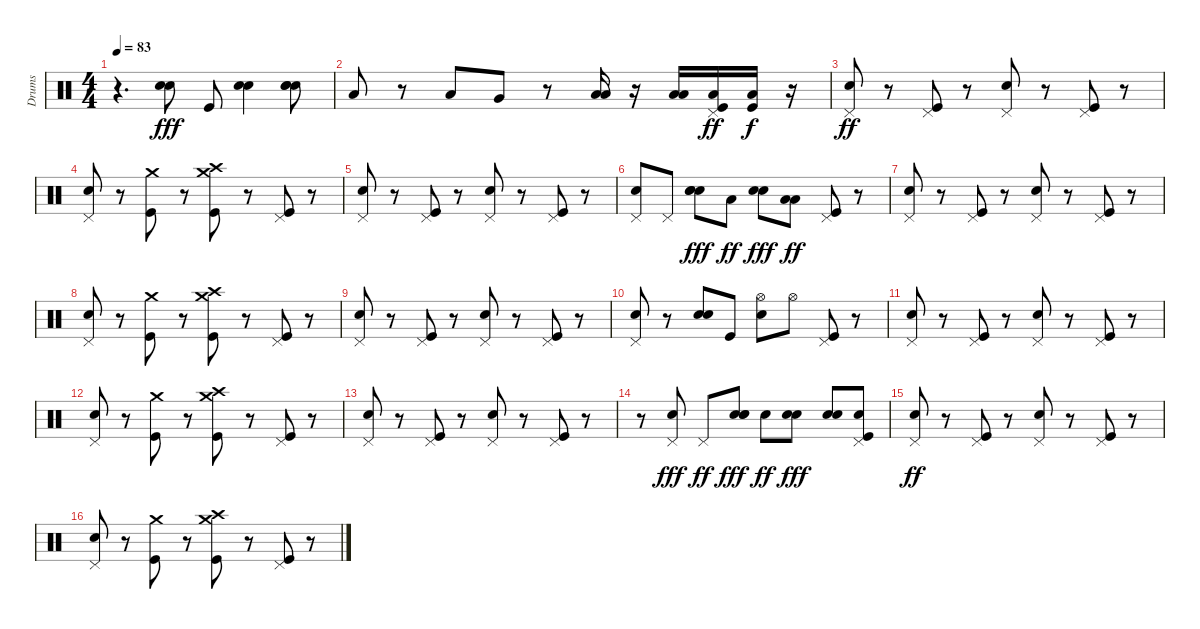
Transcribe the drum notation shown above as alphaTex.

\track ("Drums" "Drums") {instrument percussion}
\staff {score}
\articulation defaults
\ts (4 4)
\tempo 83
\clef neutral
\ks c
r.4{d dy fff} ("Electric Snare (hit)" "Snare (hit) 2").8 "Kick (hit)".8 ("Snare (hit) 2" "Snare (hit) 2").4 ("Snare (hit) 2" "Snare (hit) 2" "Snare (hit) 2").8 |
"Low Tom (hit)".8 r.8 "Low Tom (hit)".8 "Very Low Tom (hit)".8 r.8 ("Low Floor Tom (hit)" "Low Floor Tom (hit)").16 r.16 ("Low Floor Tom (hit)" "Low Floor Tom (hit)").16 ("Low Floor Tom (hit)" "Kick (hit)" "Pedal Hi-Hat (hit)").16{dy ff} ("Low Floor Tom (hit)" "Kick (hit)").16{dy f} r.16 |
("Snare (hit) 2" "Pedal Hi-Hat (hit)").8{dy ff} r.8 ("Pedal Hi-Hat (hit)" "Kick (hit)").8 r.8 ("Snare (hit) 2" "Pedal Hi-Hat (hit)").8 r.8 ("Pedal Hi-Hat (hit)" "Kick (hit)").8 r.8 |
("Snare (hit) 2" "Pedal Hi-Hat (hit)").8 r.8 ("Crash medium (hit)" "Kick (hit)").8 r.8 ("Kick (hit)" "Crash high (hit)" "Crash medium (hit)").8 r.8 ("Kick (hit)" "Pedal Hi-Hat (hit)").8 r.8 |
("Snare (hit) 2" "Pedal Hi-Hat (hit)").8 r.8 ("Kick (hit)" "Pedal Hi-Hat (hit)").8 r.8 ("Pedal Hi-Hat (hit)" "Snare (hit) 2").8 r.8 ("Kick (hit)" "Pedal Hi-Hat (hit)").8 r.8 |
("Snare (hit) 2" "Pedal Hi-Hat (hit)").8 "Pedal Hi-Hat (hit)".8 ("Snare (hit) 2" "Snare (hit) 2" "Snare (hit) 2").8{dy fff} "Low Tom (hit)".8{dy ff} ("Snare (hit) 2" "Snare (hit) 2").8{dy fff} ("Low Tom (hit)" "Low Tom (hit)").8{dy ff} ("Kick (hit)" "Pedal Hi-Hat (hit)").8 r.8 |
("Snare (hit) 2" "Pedal Hi-Hat (hit)").8 r.8 ("Kick (hit)" "Pedal Hi-Hat (hit)").8 r.8 ("Pedal Hi-Hat (hit)" "Snare (hit) 2").8 r.8 ("Kick (hit)" "Pedal Hi-Hat (hit)").8 r.8 |
("Pedal Hi-Hat (hit)" "Snare (hit) 2").8 r.8 ("Crash medium (hit)" "Kick (hit)").8 r.8 ("Kick (hit)" "Crash medium (hit)" "Crash high (hit)").8 r.8 ("Kick (hit)" "Pedal Hi-Hat (hit)").8 r.8 |
("Pedal Hi-Hat (hit)" "Snare (hit) 2").8 r.8 ("Pedal Hi-Hat (hit)" "Kick (hit)").8 r.8 ("Pedal Hi-Hat (hit)" "Snare (hit) 2").8 r.8 ("Kick (hit)" "Pedal Hi-Hat (hit)").8 r.8 |
("Pedal Hi-Hat (hit)" "Snare (hit) 2").8 r.8 ("Snare (hit) 2" "Snare (hit) 2").8 "Kick (hit)".8 ("Snare (hit) 2" "Hi-Hat (open)").8 "Hi-Hat (open)".8 ("Kick (hit)" "Pedal Hi-Hat (hit)").8 r.8 |
("Snare (hit) 2" "Pedal Hi-Hat (hit)").8 r.8 ("Pedal Hi-Hat (hit)" "Kick (hit)").8 r.8 ("Snare (hit) 2" "Pedal Hi-Hat (hit)").8 r.8 ("Pedal Hi-Hat (hit)" "Kick (hit)").8 r.8 |
("Pedal Hi-Hat (hit)" "Snare (hit) 2").8 r.8 ("Kick (hit)" "Crash medium (hit)").8 r.8 ("Kick (hit)" "Crash high (hit)" "Crash medium (hit)").8 r.8 ("Kick (hit)" "Pedal Hi-Hat (hit)").8 r.8 |
("Snare (hit) 2" "Pedal Hi-Hat (hit)").8 r.8 ("Pedal Hi-Hat (hit)" "Kick (hit)").8 r.8 ("Snare (hit) 2" "Pedal Hi-Hat (hit)").8 r.8 ("Pedal Hi-Hat (hit)" "Kick (hit)").8 r.8 |
r.8 ("Pedal Hi-Hat (hit)" "Snare (hit) 2").8{dy fff} "Pedal Hi-Hat (hit)".8{dy ff} ("Snare (hit) 2" "Snare (hit) 2" "Snare (hit) 2").8{dy fff} "Snare (hit) 2".8{dy ff} ("Snare (hit) 2" "Snare (hit) 2").8{dy fff} ("Snare (hit) 2" "Snare (hit) 2").8 ("Snare (hit) 2" "Pedal Hi-Hat (hit)" "Kick (hit)").8 |
("Pedal Hi-Hat (hit)" "Snare (hit) 2").8{dy ff} r.8 ("Pedal Hi-Hat (hit)" "Kick (hit)").8 r.8 ("Pedal Hi-Hat (hit)" "Snare (hit) 2").8 r.8 ("Kick (hit)" "Pedal Hi-Hat (hit)").8 r.8 |
("Pedal Hi-Hat (hit)" "Snare (hit) 2").8 r.8 ("Kick (hit)" "Crash medium (hit)").8 r.8 ("Kick (hit)" "Crash medium (hit)" "Crash high (hit)").8 r.8 ("Pedal Hi-Hat (hit)" "Kick (hit)").8 r.8
